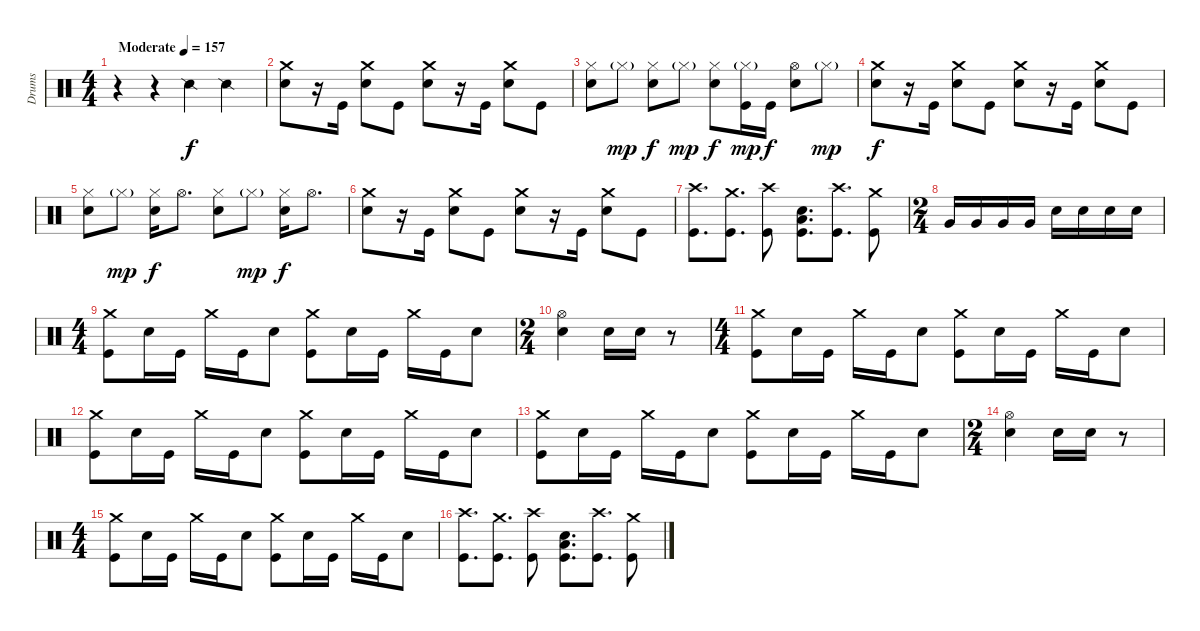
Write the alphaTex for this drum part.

\track ("Drums" "Drums") {instrument percussion}
\staff {score}
\articulation defaults
\ts (4 4)
\tempo (157 "Moderate")
\clef neutral
\ks c
r.4{dy f} r.4 "Snare (side stick) 2".4 "Snare (side stick) 2".4 |
("Crash medium (hit)" "Electric Snare (hit)").8 r.16 "Kick (hit)".16 ("Crash medium (hit)" "Electric Snare (hit)").8 "Kick (hit)".8 ("Crash medium (hit)" "Electric Snare (hit)").8 r.16 "Kick (hit)".16 ("Crash medium (hit)" "Electric Snare (hit)").8 "Kick (hit)".8 |
("Hi-Hat (closed)" "Electric Snare (hit)").8 "Hi-Hat (closed)"{g}.8{dy mp} ("Hi-Hat (closed)" "Electric Snare (hit)").8{dy f} "Hi-Hat (closed)"{g}.8{dy mp} ("Hi-Hat (closed)" "Electric Snare (hit)").8{dy f} ("Hi-Hat (closed)"{g} "Kick (hit)").16{dy mp} "Kick (hit)".16{dy f} ("Hi-Hat (open)" "Electric Snare (hit)").8 "Hi-Hat (closed)"{g}.8{dy mp} |
("Crash medium (hit)" "Electric Snare (hit)").8{dy f} r.16 "Kick (hit)".16 ("Crash medium (hit)" "Electric Snare (hit)").8 "Kick (hit)".8 ("Crash medium (hit)" "Electric Snare (hit)").8 r.16 "Kick (hit)".16 ("Crash medium (hit)" "Electric Snare (hit)").8 "Kick (hit)".8 |
("Hi-Hat (closed)" "Electric Snare (hit)").8 "Hi-Hat (closed)"{g}.8{dy mp} ("Hi-Hat (closed)" "Electric Snare (hit)").16{dy f} "Hi-Hat (open)".8{d} ("Hi-Hat (closed)" "Electric Snare (hit)").8 "Hi-Hat (closed)"{g}.8{dy mp} ("Hi-Hat (closed)" "Electric Snare (hit)").16{dy f} "Hi-Hat (open)".8{d} |
("Crash medium (hit)" "Electric Snare (hit)").8 r.16 "Kick (hit)".16 ("Crash medium (hit)" "Electric Snare (hit)").8 "Kick (hit)".8 ("Crash medium (hit)" "Electric Snare (hit)").8 r.16 "Kick (hit)".16 ("Crash medium (hit)" "Electric Snare (hit)").8 "Kick (hit)".8 |
("Crash high (hit)" "Kick (hit)").8{d} ("Crash medium (hit)" "Kick (hit)").8{d} ("Crash high (hit)" "Kick (hit)").8 ("Low Floor Tom (hit)" "Electric Snare (hit)" "Kick (hit)").8{d} ("Crash high (hit)" "Kick (hit)").8{d} ("Crash medium (hit)" "Kick (hit)").8 |
\ts (2 4)
"Very Low Tom (hit)".16 "Very Low Tom (hit)".16 "Very Low Tom (hit)".16 "Very Low Tom (hit)".16 "Electric Snare (hit)".16 "Electric Snare (hit)".16 "Electric Snare (hit)".16 "Electric Snare (hit)".16 |
\ts (4 4)
("Crash medium (hit)" "Kick (hit)").8 "Electric Snare (hit)".16 "Kick (hit)".16 "Crash medium (hit)".16 "Kick (hit)".16 "Electric Snare (hit)".8 ("Crash medium (hit)" "Kick (hit)").8 "Electric Snare (hit)".16 "Kick (hit)".16 "Crash medium (hit)".16 "Kick (hit)".16 "Electric Snare (hit)".8 |
\ts (2 4)
("Hi-Hat (open)" "Electric Snare (hit)").4 "Electric Snare (hit)".16 "Electric Snare (hit)".16 r.8 |
\ts (4 4)
("Crash medium (hit)" "Kick (hit)").8 "Electric Snare (hit)".16 "Kick (hit)".16 "Crash medium (hit)".16 "Kick (hit)".16 "Electric Snare (hit)".8 ("Crash medium (hit)" "Kick (hit)").8 "Electric Snare (hit)".16 "Kick (hit)".16 "Crash medium (hit)".16 "Kick (hit)".16 "Electric Snare (hit)".8 |
("Crash medium (hit)" "Kick (hit)").8 "Electric Snare (hit)".16 "Kick (hit)".16 "Crash medium (hit)".16 "Kick (hit)".16 "Electric Snare (hit)".8 ("Crash medium (hit)" "Kick (hit)").8 "Electric Snare (hit)".16 "Kick (hit)".16 "Crash medium (hit)".16 "Kick (hit)".16 "Electric Snare (hit)".8 |
("Crash medium (hit)" "Kick (hit)").8 "Electric Snare (hit)".16 "Kick (hit)".16 "Crash medium (hit)".16 "Kick (hit)".16 "Electric Snare (hit)".8 ("Crash medium (hit)" "Kick (hit)").8 "Electric Snare (hit)".16 "Kick (hit)".16 "Crash medium (hit)".16 "Kick (hit)".16 "Electric Snare (hit)".8 |
\ts (2 4)
("Hi-Hat (open)" "Electric Snare (hit)").4 "Electric Snare (hit)".16 "Electric Snare (hit)".16 r.8 |
\ts (4 4)
("Crash medium (hit)" "Kick (hit)").8 "Electric Snare (hit)".16 "Kick (hit)".16 "Crash medium (hit)".16 "Kick (hit)".16 "Electric Snare (hit)".8 ("Crash medium (hit)" "Kick (hit)").8 "Electric Snare (hit)".16 "Kick (hit)".16 "Crash medium (hit)".16 "Kick (hit)".16 "Electric Snare (hit)".8 |
("Crash high (hit)" "Kick (hit)").8{d} ("Crash medium (hit)" "Kick (hit)").8{d} ("Crash high (hit)" "Kick (hit)").8 ("Low Floor Tom (hit)" "Electric Snare (hit)" "Kick (hit)").8{d} ("Crash high (hit)" "Kick (hit)").8{d} ("Crash medium (hit)" "Kick (hit)").8
